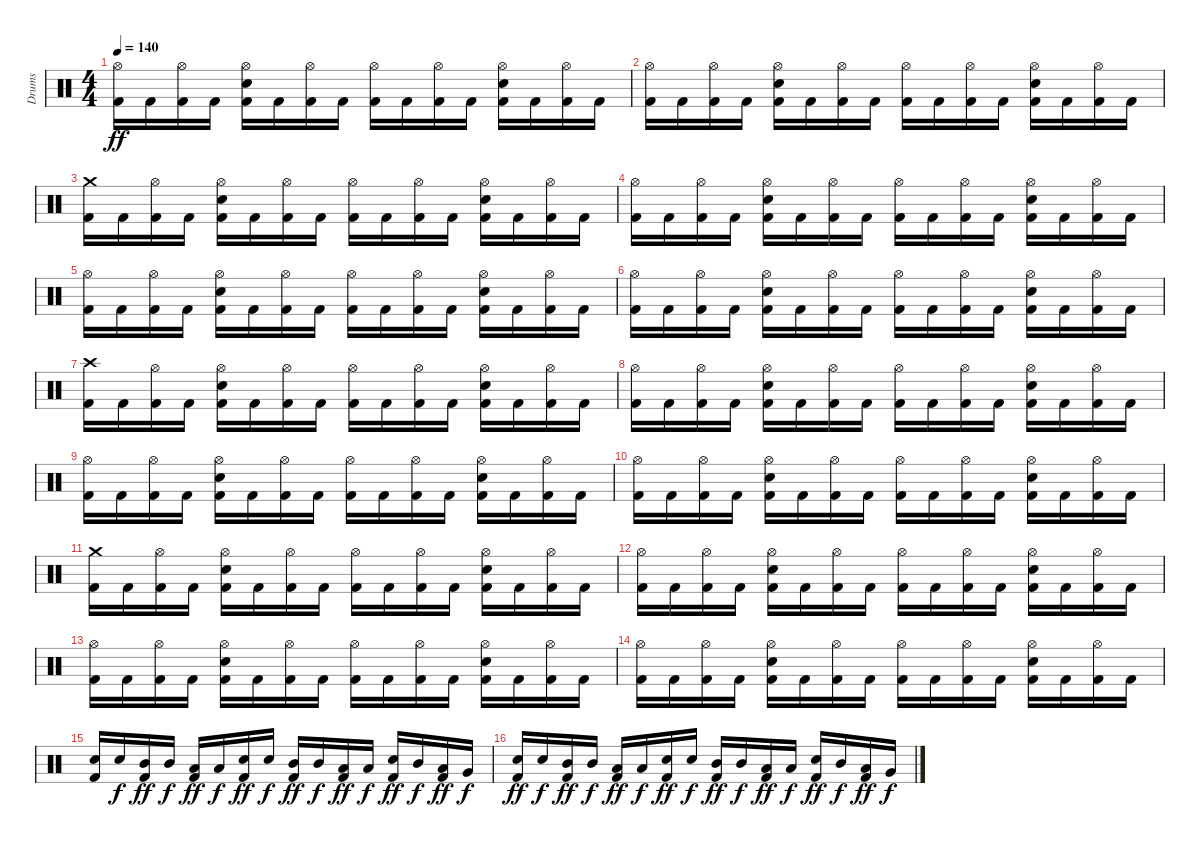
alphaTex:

\track ("Drums" "Drums") {instrument percussion}
\staff {score}
\articulation defaults
\ts (4 4)
\tempo 140
\clef neutral
\ks c
("Hi-Hat (open)" "Kick (hit) 2").16{dy ff} "Kick (hit) 2".16 ("Hi-Hat (open)" "Kick (hit) 2").16 "Kick (hit) 2".16 ("Hi-Hat (open)" "Electric Snare (hit)" "Kick (hit) 2").16 "Kick (hit) 2".16 ("Hi-Hat (open)" "Kick (hit) 2").16 "Kick (hit) 2".16 ("Hi-Hat (open)" "Kick (hit) 2").16 "Kick (hit) 2".16 ("Hi-Hat (open)" "Kick (hit) 2").16 "Kick (hit) 2".16 ("Hi-Hat (open)" "Electric Snare (hit)" "Kick (hit) 2").16 "Kick (hit) 2".16 ("Hi-Hat (open)" "Kick (hit) 2").16 "Kick (hit) 2".16 |
("Hi-Hat (open)" "Kick (hit) 2").16 "Kick (hit) 2".16 ("Hi-Hat (open)" "Kick (hit) 2").16 "Kick (hit) 2".16 ("Hi-Hat (open)" "Electric Snare (hit)" "Kick (hit) 2").16 "Kick (hit) 2".16 ("Hi-Hat (open)" "Kick (hit) 2").16 "Kick (hit) 2".16 ("Hi-Hat (open)" "Kick (hit) 2").16 "Kick (hit) 2".16 ("Hi-Hat (open)" "Kick (hit) 2").16 "Kick (hit) 2".16 ("Hi-Hat (open)" "Electric Snare (hit)" "Kick (hit) 2").16 "Kick (hit) 2".16 ("Hi-Hat (open)" "Kick (hit) 2").16 "Kick (hit) 2".16 |
("Crash medium (hit)" "Kick (hit) 2").16 "Kick (hit) 2".16 ("Hi-Hat (open)" "Kick (hit) 2").16 "Kick (hit) 2".16 ("Hi-Hat (open)" "Electric Snare (hit)" "Kick (hit) 2").16 "Kick (hit) 2".16 ("Hi-Hat (open)" "Kick (hit) 2").16 "Kick (hit) 2".16 ("Hi-Hat (open)" "Kick (hit) 2").16 "Kick (hit) 2".16 ("Hi-Hat (open)" "Kick (hit) 2").16 "Kick (hit) 2".16 ("Hi-Hat (open)" "Electric Snare (hit)" "Kick (hit) 2").16 "Kick (hit) 2".16 ("Hi-Hat (open)" "Kick (hit) 2").16 "Kick (hit) 2".16 |
("Hi-Hat (open)" "Kick (hit) 2").16 "Kick (hit) 2".16 ("Hi-Hat (open)" "Kick (hit) 2").16 "Kick (hit) 2".16 ("Hi-Hat (open)" "Electric Snare (hit)" "Kick (hit) 2").16 "Kick (hit) 2".16 ("Hi-Hat (open)" "Kick (hit) 2").16 "Kick (hit) 2".16 ("Hi-Hat (open)" "Kick (hit) 2").16 "Kick (hit) 2".16 ("Hi-Hat (open)" "Kick (hit) 2").16 "Kick (hit) 2".16 ("Hi-Hat (open)" "Electric Snare (hit)" "Kick (hit) 2").16 "Kick (hit) 2".16 ("Hi-Hat (open)" "Kick (hit) 2").16 "Kick (hit) 2".16 |
("Hi-Hat (open)" "Kick (hit) 2").16 "Kick (hit) 2".16 ("Hi-Hat (open)" "Kick (hit) 2").16 "Kick (hit) 2".16 ("Hi-Hat (open)" "Electric Snare (hit)" "Kick (hit) 2").16 "Kick (hit) 2".16 ("Hi-Hat (open)" "Kick (hit) 2").16 "Kick (hit) 2".16 ("Hi-Hat (open)" "Kick (hit) 2").16 "Kick (hit) 2".16 ("Hi-Hat (open)" "Kick (hit) 2").16 "Kick (hit) 2".16 ("Hi-Hat (open)" "Electric Snare (hit)" "Kick (hit) 2").16 "Kick (hit) 2".16 ("Hi-Hat (open)" "Kick (hit) 2").16 "Kick (hit) 2".16 |
("Hi-Hat (open)" "Kick (hit) 2").16 "Kick (hit) 2".16 ("Hi-Hat (open)" "Kick (hit) 2").16 "Kick (hit) 2".16 ("Hi-Hat (open)" "Electric Snare (hit)" "Kick (hit) 2").16 "Kick (hit) 2".16 ("Hi-Hat (open)" "Kick (hit) 2").16 "Kick (hit) 2".16 ("Hi-Hat (open)" "Kick (hit) 2").16 "Kick (hit) 2".16 ("Hi-Hat (open)" "Kick (hit) 2").16 "Kick (hit) 2".16 ("Hi-Hat (open)" "Electric Snare (hit)" "Kick (hit) 2").16 "Kick (hit) 2".16 ("Hi-Hat (open)" "Kick (hit) 2").16 "Kick (hit) 2".16 |
("Crash high (hit)" "Kick (hit) 2").16 "Kick (hit) 2".16 ("Hi-Hat (open)" "Kick (hit) 2").16 "Kick (hit) 2".16 ("Hi-Hat (open)" "Electric Snare (hit)" "Kick (hit) 2").16 "Kick (hit) 2".16 ("Hi-Hat (open)" "Kick (hit) 2").16 "Kick (hit) 2".16 ("Hi-Hat (open)" "Kick (hit) 2").16 "Kick (hit) 2".16 ("Hi-Hat (open)" "Kick (hit) 2").16 "Kick (hit) 2".16 ("Hi-Hat (open)" "Electric Snare (hit)" "Kick (hit) 2").16 "Kick (hit) 2".16 ("Hi-Hat (open)" "Kick (hit) 2").16 "Kick (hit) 2".16 |
("Hi-Hat (open)" "Kick (hit) 2").16 "Kick (hit) 2".16 ("Hi-Hat (open)" "Kick (hit) 2").16 "Kick (hit) 2".16 ("Hi-Hat (open)" "Electric Snare (hit)" "Kick (hit) 2").16 "Kick (hit) 2".16 ("Hi-Hat (open)" "Kick (hit) 2").16 "Kick (hit) 2".16 ("Hi-Hat (open)" "Kick (hit) 2").16 "Kick (hit) 2".16 ("Hi-Hat (open)" "Kick (hit) 2").16 "Kick (hit) 2".16 ("Hi-Hat (open)" "Electric Snare (hit)" "Kick (hit) 2").16 "Kick (hit) 2".16 ("Hi-Hat (open)" "Kick (hit) 2").16 "Kick (hit) 2".16 |
("Hi-Hat (open)" "Kick (hit) 2").16 "Kick (hit) 2".16 ("Hi-Hat (open)" "Kick (hit) 2").16 "Kick (hit) 2".16 ("Hi-Hat (open)" "Electric Snare (hit)" "Kick (hit) 2").16 "Kick (hit) 2".16 ("Hi-Hat (open)" "Kick (hit) 2").16 "Kick (hit) 2".16 ("Hi-Hat (open)" "Kick (hit) 2").16 "Kick (hit) 2".16 ("Hi-Hat (open)" "Kick (hit) 2").16 "Kick (hit) 2".16 ("Hi-Hat (open)" "Electric Snare (hit)" "Kick (hit) 2").16 "Kick (hit) 2".16 ("Hi-Hat (open)" "Kick (hit) 2").16 "Kick (hit) 2".16 |
("Hi-Hat (open)" "Kick (hit) 2").16 "Kick (hit) 2".16 ("Hi-Hat (open)" "Kick (hit) 2").16 "Kick (hit) 2".16 ("Hi-Hat (open)" "Electric Snare (hit)" "Kick (hit) 2").16 "Kick (hit) 2".16 ("Hi-Hat (open)" "Kick (hit) 2").16 "Kick (hit) 2".16 ("Hi-Hat (open)" "Kick (hit) 2").16 "Kick (hit) 2".16 ("Hi-Hat (open)" "Kick (hit) 2").16 "Kick (hit) 2".16 ("Hi-Hat (open)" "Electric Snare (hit)" "Kick (hit) 2").16 "Kick (hit) 2".16 ("Hi-Hat (open)" "Kick (hit) 2").16 "Kick (hit) 2".16 |
("Crash medium (hit)" "Kick (hit) 2").16 "Kick (hit) 2".16 ("Hi-Hat (open)" "Kick (hit) 2").16 "Kick (hit) 2".16 ("Hi-Hat (open)" "Electric Snare (hit)" "Kick (hit) 2").16 "Kick (hit) 2".16 ("Hi-Hat (open)" "Kick (hit) 2").16 "Kick (hit) 2".16 ("Hi-Hat (open)" "Kick (hit) 2").16 "Kick (hit) 2".16 ("Hi-Hat (open)" "Kick (hit) 2").16 "Kick (hit) 2".16 ("Hi-Hat (open)" "Electric Snare (hit)" "Kick (hit) 2").16 "Kick (hit) 2".16 ("Hi-Hat (open)" "Kick (hit) 2").16 "Kick (hit) 2".16 |
("Hi-Hat (open)" "Kick (hit) 2").16 "Kick (hit) 2".16 ("Hi-Hat (open)" "Kick (hit) 2").16 "Kick (hit) 2".16 ("Hi-Hat (open)" "Electric Snare (hit)" "Kick (hit) 2").16 "Kick (hit) 2".16 ("Hi-Hat (open)" "Kick (hit) 2").16 "Kick (hit) 2".16 ("Hi-Hat (open)" "Kick (hit) 2").16 "Kick (hit) 2".16 ("Hi-Hat (open)" "Kick (hit) 2").16 "Kick (hit) 2".16 ("Hi-Hat (open)" "Electric Snare (hit)" "Kick (hit) 2").16 "Kick (hit) 2".16 ("Hi-Hat (open)" "Kick (hit) 2").16 "Kick (hit) 2".16 |
("Hi-Hat (open)" "Kick (hit) 2").16 "Kick (hit) 2".16 ("Hi-Hat (open)" "Kick (hit) 2").16 "Kick (hit) 2".16 ("Hi-Hat (open)" "Electric Snare (hit)" "Kick (hit) 2").16 "Kick (hit) 2".16 ("Hi-Hat (open)" "Kick (hit) 2").16 "Kick (hit) 2".16 ("Hi-Hat (open)" "Kick (hit) 2").16 "Kick (hit) 2".16 ("Hi-Hat (open)" "Kick (hit) 2").16 "Kick (hit) 2".16 ("Hi-Hat (open)" "Electric Snare (hit)" "Kick (hit) 2").16 "Kick (hit) 2".16 ("Hi-Hat (open)" "Kick (hit) 2").16 "Kick (hit) 2".16 |
("Hi-Hat (open)" "Kick (hit) 2").16 "Kick (hit) 2".16 ("Hi-Hat (open)" "Kick (hit) 2").16 "Kick (hit) 2".16 ("Hi-Hat (open)" "Electric Snare (hit)" "Kick (hit) 2").16 "Kick (hit) 2".16 ("Hi-Hat (open)" "Kick (hit) 2").16 "Kick (hit) 2".16 ("Hi-Hat (open)" "Kick (hit) 2").16 "Kick (hit) 2".16 ("Hi-Hat (open)" "Kick (hit) 2").16 "Kick (hit) 2".16 ("Hi-Hat (open)" "Electric Snare (hit)" "Kick (hit) 2").16 "Kick (hit) 2".16 ("Hi-Hat (open)" "Kick (hit) 2").16 "Kick (hit) 2".16 |
("Electric Snare (hit)" "Kick (hit) 2").16 "Electric Snare (hit)".16{dy f} ("Mid Tom (hit)" "Kick (hit) 2").16{dy ff} "Mid Tom (hit)".16{dy f} ("Low Tom (hit)" "Kick (hit) 2").16{dy ff} "Low Tom (hit)".16{dy f} ("Electric Snare (hit)" "Kick (hit) 2").16{dy ff} "Electric Snare (hit)".16{dy f} ("Mid Tom (hit)" "Kick (hit) 2").16{dy ff} "Mid Tom (hit)".16{dy f} ("Low Tom (hit)" "Kick (hit) 2").16{dy ff} "Low Tom (hit)".16{dy f} ("Electric Snare (hit)" "Kick (hit) 2").16{dy ff} "Mid Tom (hit)".16{dy f} ("Low Tom (hit)" "Kick (hit) 2").16{dy ff} "Very Low Tom (hit)".16{dy f} |
("Electric Snare (hit)" "Kick (hit) 2").16{dy ff} "Electric Snare (hit)".16{dy f} ("Mid Tom (hit)" "Kick (hit) 2").16{dy ff} "Mid Tom (hit)".16{dy f} ("Low Tom (hit)" "Kick (hit) 2").16{dy ff} "Low Tom (hit)".16{dy f} ("Electric Snare (hit)" "Kick (hit) 2").16{dy ff} "Electric Snare (hit)".16{dy f} ("Mid Tom (hit)" "Kick (hit) 2").16{dy ff} "Mid Tom (hit)".16{dy f} ("Low Tom (hit)" "Kick (hit) 2").16{dy ff} "Low Tom (hit)".16{dy f} ("Electric Snare (hit)" "Kick (hit) 2").16{dy ff} "Mid Tom (hit)".16{dy f} ("Low Tom (hit)" "Kick (hit) 2").16{dy ff} "Very Low Tom (hit)".16{dy f}
